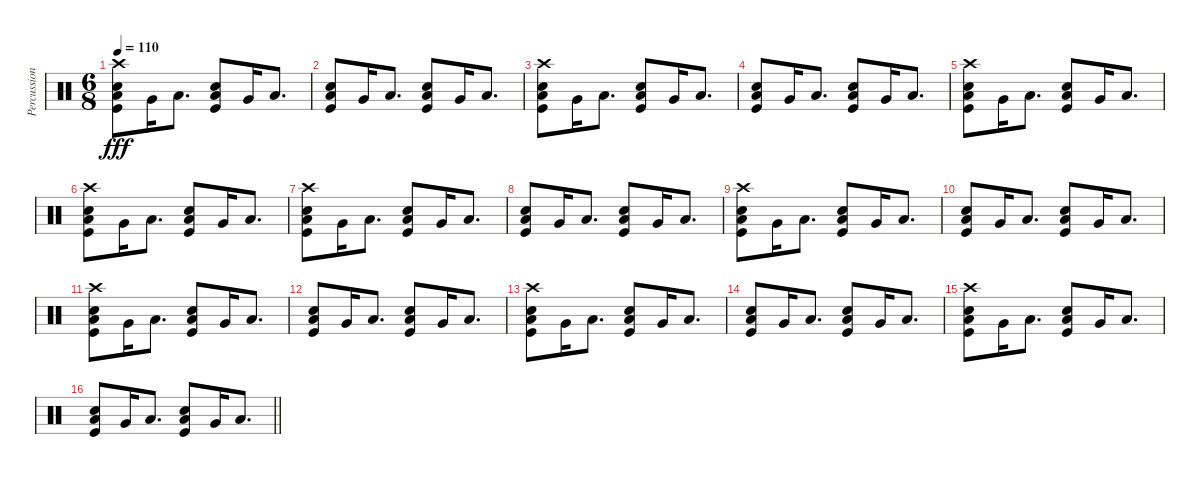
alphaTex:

\track ("Percussion" "Percussion") {instrument percussion}
\staff {score}
\articulation defaults
\ts (6 8)
\tempo 110
\clef neutral
\ks c
("Crash high (hit)" "Electric Snare (hit)" "Low Floor Tom (hit)" "Kick (hit)").8{dy fff} "Very Low Tom (hit)".16 "Low Floor Tom (hit)".8{d} ("Electric Snare (hit)" "Low Floor Tom (hit)" "Kick (hit)").8 "Very Low Tom (hit)".16 "Low Floor Tom (hit)".8{d} |
("Electric Snare (hit)" "Low Floor Tom (hit)" "Kick (hit)").8 "Very Low Tom (hit)".16 "Low Floor Tom (hit)".8{d} ("Electric Snare (hit)" "Low Floor Tom (hit)" "Kick (hit)").8 "Very Low Tom (hit)".16 "Low Floor Tom (hit)".8{d} |
("Crash high (hit)" "Electric Snare (hit)" "Low Floor Tom (hit)" "Kick (hit)").8 "Very Low Tom (hit)".16 "Low Floor Tom (hit)".8{d} ("Electric Snare (hit)" "Low Floor Tom (hit)" "Kick (hit)").8 "Very Low Tom (hit)".16 "Low Floor Tom (hit)".8{d} |
("Electric Snare (hit)" "Low Floor Tom (hit)" "Kick (hit)").8 "Very Low Tom (hit)".16 "Low Floor Tom (hit)".8{d} ("Electric Snare (hit)" "Low Floor Tom (hit)" "Kick (hit)").8 "Very Low Tom (hit)".16 "Low Floor Tom (hit)".8{d} |
("Crash high (hit)" "Electric Snare (hit)" "Low Floor Tom (hit)" "Kick (hit)").8 "Very Low Tom (hit)".16 "Low Floor Tom (hit)".8{d} ("Electric Snare (hit)" "Low Floor Tom (hit)" "Kick (hit)").8 "Very Low Tom (hit)".16 "Low Floor Tom (hit)".8{d} |
("Crash high (hit)" "Electric Snare (hit)" "Low Floor Tom (hit)" "Kick (hit)").8 "Very Low Tom (hit)".16 "Low Floor Tom (hit)".8{d} ("Electric Snare (hit)" "Low Floor Tom (hit)" "Kick (hit)").8 "Very Low Tom (hit)".16 "Low Floor Tom (hit)".8{d} |
("Crash high (hit)" "Electric Snare (hit)" "Low Floor Tom (hit)" "Kick (hit)").8 "Very Low Tom (hit)".16 "Low Floor Tom (hit)".8{d} ("Electric Snare (hit)" "Low Floor Tom (hit)" "Kick (hit)").8 "Very Low Tom (hit)".16 "Low Floor Tom (hit)".8{d} |
("Electric Snare (hit)" "Low Floor Tom (hit)" "Kick (hit)").8 "Very Low Tom (hit)".16 "Low Floor Tom (hit)".8{d} ("Electric Snare (hit)" "Low Floor Tom (hit)" "Kick (hit)").8 "Very Low Tom (hit)".16 "Low Floor Tom (hit)".8{d} |
("Crash high (hit)" "Electric Snare (hit)" "Low Floor Tom (hit)" "Kick (hit)").8 "Very Low Tom (hit)".16 "Low Floor Tom (hit)".8{d} ("Electric Snare (hit)" "Low Floor Tom (hit)" "Kick (hit)").8 "Very Low Tom (hit)".16 "Low Floor Tom (hit)".8{d} |
("Electric Snare (hit)" "Low Floor Tom (hit)" "Kick (hit)").8 "Very Low Tom (hit)".16 "Low Floor Tom (hit)".8{d} ("Electric Snare (hit)" "Low Floor Tom (hit)" "Kick (hit)").8 "Very Low Tom (hit)".16 "Low Floor Tom (hit)".8{d} |
("Crash high (hit)" "Electric Snare (hit)" "Low Floor Tom (hit)" "Kick (hit)").8 "Very Low Tom (hit)".16 "Low Floor Tom (hit)".8{d} ("Electric Snare (hit)" "Low Floor Tom (hit)" "Kick (hit)").8 "Very Low Tom (hit)".16 "Low Floor Tom (hit)".8{d} |
("Electric Snare (hit)" "Low Floor Tom (hit)" "Kick (hit)").8 "Very Low Tom (hit)".16 "Low Floor Tom (hit)".8{d} ("Electric Snare (hit)" "Low Floor Tom (hit)" "Kick (hit)").8 "Very Low Tom (hit)".16 "Low Floor Tom (hit)".8{d} |
("Crash high (hit)" "Electric Snare (hit)" "Low Floor Tom (hit)" "Kick (hit)").8 "Very Low Tom (hit)".16 "Low Floor Tom (hit)".8{d} ("Electric Snare (hit)" "Low Floor Tom (hit)" "Kick (hit)").8 "Very Low Tom (hit)".16 "Low Floor Tom (hit)".8{d} |
("Electric Snare (hit)" "Low Floor Tom (hit)" "Kick (hit)").8 "Very Low Tom (hit)".16 "Low Floor Tom (hit)".8{d} ("Electric Snare (hit)" "Low Floor Tom (hit)" "Kick (hit)").8 "Very Low Tom (hit)".16 "Low Floor Tom (hit)".8{d} |
("Crash high (hit)" "Electric Snare (hit)" "Low Floor Tom (hit)" "Kick (hit)").8 "Very Low Tom (hit)".16 "Low Floor Tom (hit)".8{d} ("Electric Snare (hit)" "Low Floor Tom (hit)" "Kick (hit)").8 "Very Low Tom (hit)".16 "Low Floor Tom (hit)".8{d} |
\barLineRight lightlight
("Electric Snare (hit)" "Low Floor Tom (hit)" "Kick (hit)").8 "Very Low Tom (hit)".16 "Low Floor Tom (hit)".8{d} ("Electric Snare (hit)" "Low Floor Tom (hit)" "Kick (hit)").8 "Very Low Tom (hit)".16 "Low Floor Tom (hit)".8{d}
